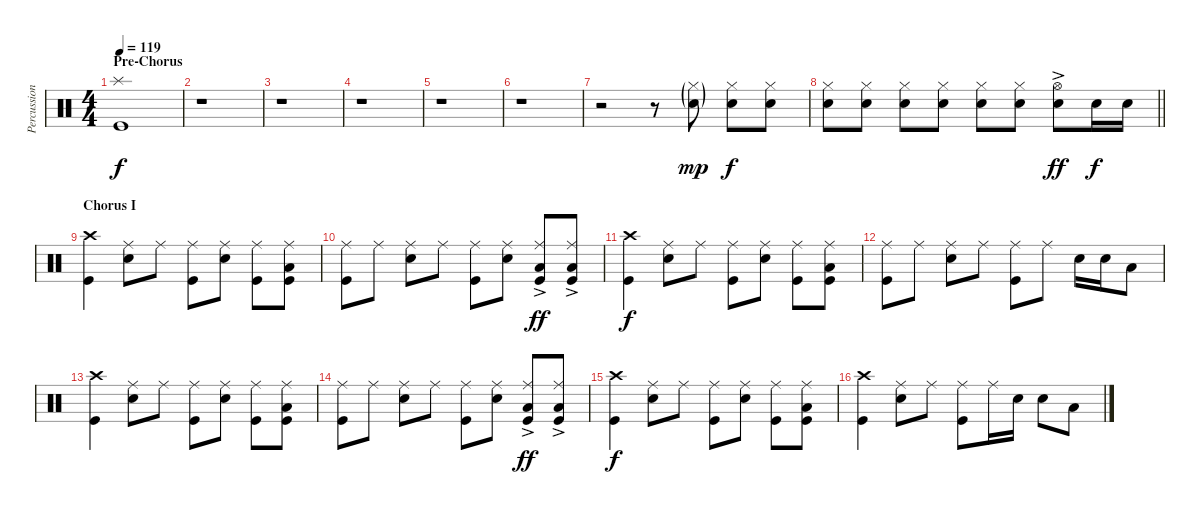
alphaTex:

\track ("Percussion" "Percussion") {instrument percussion}
\staff {score}
\articulation defaults
\ts (4 4)
\section ("" "Pre-Chorus")
\tempo 119
\clef neutral
\ks c
("Splash (hit)" "Kick (hit)").1{dy f} |
r.1 |
r.1 |
r.1 |
r.1 |
r.1 |
r.2{volume 7} r.8 ("Hi-Hat (closed)"{g} "Snare (hit) 2"{g}).8{dy mp volume 13} ("Hi-Hat (closed)" "Snare (hit) 2").8{dy f} ("Hi-Hat (closed)" "Snare (hit) 2").8 |
\barLineRight lightlight
("Hi-Hat (closed)" "Snare (hit) 2").8 ("Hi-Hat (closed)" "Snare (hit) 2").8 ("Hi-Hat (closed)" "Snare (hit) 2").8 ("Hi-Hat (closed)" "Snare (hit) 2").8 ("Hi-Hat (closed)" "Snare (hit) 2").8 ("Hi-Hat (closed)" "Snare (hit) 2").8 ("Hi-Hat (open)" "Snare (hit) 2"{ac}).8{dy ff} "Snare (hit) 2".16{dy f} "Snare (hit) 2".16 |
\section ("" "Chorus I")
("Crash high (hit)" "Kick (hit)").4 ("Ride (middle)" "Snare (hit) 2").8 "Ride (middle)".8 ("Ride (middle)" "Kick (hit)").8 ("Ride (middle)" "Snare (hit) 2").8 ("Ride (middle)" "Kick (hit)").8 ("Ride (middle)" "Low Tom (hit)" "Kick (hit)").8 |
("Ride (middle)" "Kick (hit)").8 "Ride (middle)".8 ("Ride (middle)" "Snare (hit) 2").8 "Ride (middle)".8 ("Ride (middle)" "Kick (hit)").8 ("Ride (middle)" "Snare (hit) 2").8 ("Ride (middle)" "Low Tom (hit)"{ac} "Kick (hit)").8{dy ff} ("Ride (middle)" "Low Tom (hit)"{ac} "Kick (hit)").8 |
("Crash high (hit)" "Kick (hit)").4{dy f} ("Ride (middle)" "Snare (hit) 2").8 "Ride (middle)".8 ("Ride (middle)" "Kick (hit)").8 ("Ride (middle)" "Snare (hit) 2").8 ("Ride (middle)" "Kick (hit)").8 ("Ride (middle)" "Low Tom (hit)" "Kick (hit)").8 |
("Ride (middle)" "Kick (hit)").8 "Ride (middle)".8 ("Ride (middle)" "Snare (hit) 2").8 "Ride (middle)".8 ("Ride (middle)" "Kick (hit)").8 "Ride (middle)".8 "Snare (hit) 2".16 "Snare (hit) 2".16 "Low Tom (hit)".8 |
("Crash high (hit)" "Kick (hit)").4 ("Ride (middle)" "Snare (hit) 2").8 "Ride (middle)".8 ("Ride (middle)" "Kick (hit)").8 ("Ride (middle)" "Snare (hit) 2").8 ("Ride (middle)" "Kick (hit)").8 ("Ride (middle)" "Low Tom (hit)" "Kick (hit)").8 |
("Ride (middle)" "Kick (hit)").8 "Ride (middle)".8 ("Ride (middle)" "Snare (hit) 2").8 "Ride (middle)".8 ("Ride (middle)" "Kick (hit)").8 ("Ride (middle)" "Snare (hit) 2").8 ("Ride (middle)" "Low Tom (hit)"{ac} "Kick (hit)").8{dy ff} ("Ride (middle)" "Low Tom (hit)"{ac} "Kick (hit)").8 |
("Crash high (hit)" "Kick (hit)").4{dy f} ("Ride (middle)" "Snare (hit) 2").8 "Ride (middle)".8 ("Ride (middle)" "Kick (hit)").8 ("Ride (middle)" "Snare (hit) 2").8 ("Ride (middle)" "Kick (hit)").8 ("Ride (middle)" "Low Tom (hit)" "Kick (hit)").8 |
("Crash high (hit)" "Kick (hit)").4 ("Ride (middle)" "Snare (hit) 2").8 "Ride (middle)".8 ("Ride (middle)" "Kick (hit)").8 "Ride (middle)".16 "Snare (hit) 2".16 "Snare (hit) 2".8 "Low Tom (hit)".8
